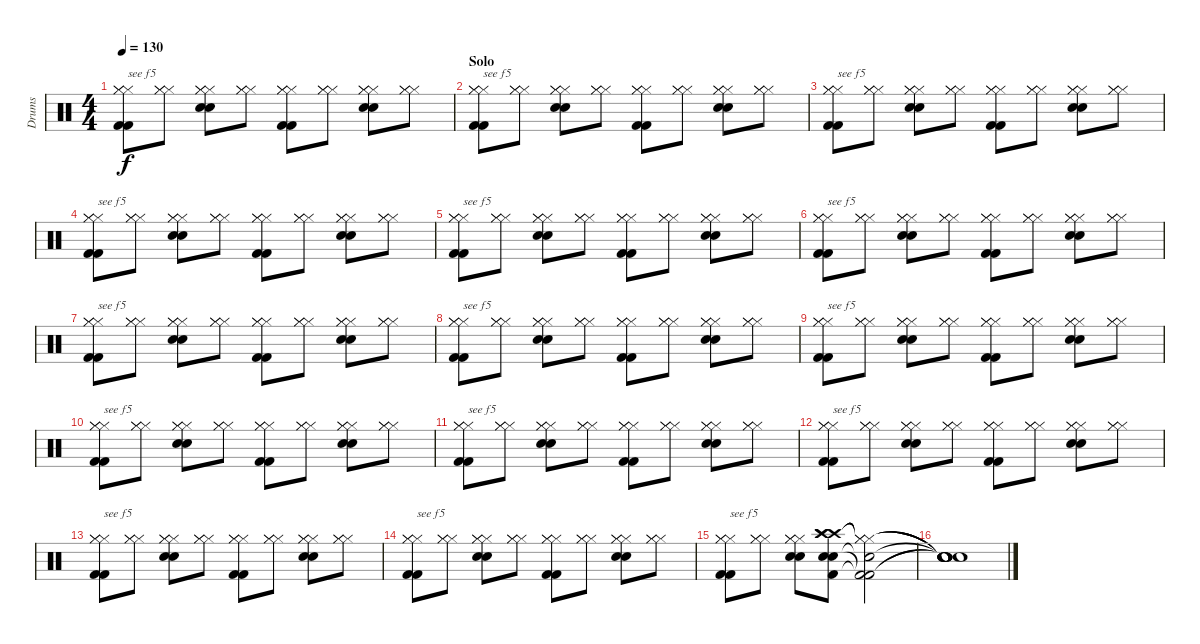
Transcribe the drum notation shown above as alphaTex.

\track ("Drums" "Drums") {instrument percussion}
\staff {score}
\articulation defaults
\ts (4 4)
\tempo 130
\clef neutral
\ks c
("Hi-Hat (closed)" "Hi-Hat (closed)" "Hi-Hat (closed)" "Kick (hit) 2" "Kick (hit) 2").8{txt "see f5" dy f} ("Hi-Hat (closed)" "Hi-Hat (closed)" "Hi-Hat (closed)").8 ("Hi-Hat (closed)" "Hi-Hat (closed)" "Hi-Hat (closed)" "Electric Snare (hit)" "Electric Snare (hit)").8 ("Hi-Hat (closed)" "Hi-Hat (closed)" "Hi-Hat (closed)").8 ("Hi-Hat (closed)" "Hi-Hat (closed)" "Hi-Hat (closed)" "Kick (hit) 2" "Kick (hit) 2").8 ("Hi-Hat (closed)" "Hi-Hat (closed)" "Hi-Hat (closed)").8 ("Hi-Hat (closed)" "Hi-Hat (closed)" "Hi-Hat (closed)" "Electric Snare (hit)" "Electric Snare (hit)").8 ("Hi-Hat (closed)" "Hi-Hat (closed)" "Hi-Hat (closed)").8 |
\section ("" "Solo")
("Hi-Hat (closed)" "Hi-Hat (closed)" "Hi-Hat (closed)" "Kick (hit) 2" "Kick (hit) 2").8{txt "see f5"} ("Hi-Hat (closed)" "Hi-Hat (closed)" "Hi-Hat (closed)").8 ("Hi-Hat (closed)" "Hi-Hat (closed)" "Hi-Hat (closed)" "Electric Snare (hit)" "Electric Snare (hit)").8 ("Hi-Hat (closed)" "Hi-Hat (closed)" "Hi-Hat (closed)").8 ("Hi-Hat (closed)" "Hi-Hat (closed)" "Hi-Hat (closed)" "Kick (hit) 2" "Kick (hit) 2").8 ("Hi-Hat (closed)" "Hi-Hat (closed)" "Hi-Hat (closed)").8 ("Hi-Hat (closed)" "Hi-Hat (closed)" "Hi-Hat (closed)" "Electric Snare (hit)" "Electric Snare (hit)").8 ("Hi-Hat (closed)" "Hi-Hat (closed)" "Hi-Hat (closed)").8 |
("Hi-Hat (closed)" "Hi-Hat (closed)" "Hi-Hat (closed)" "Kick (hit) 2" "Kick (hit) 2").8{txt "see f5"} ("Hi-Hat (closed)" "Hi-Hat (closed)" "Hi-Hat (closed)").8 ("Hi-Hat (closed)" "Hi-Hat (closed)" "Hi-Hat (closed)" "Electric Snare (hit)" "Electric Snare (hit)").8 ("Hi-Hat (closed)" "Hi-Hat (closed)" "Hi-Hat (closed)").8 ("Hi-Hat (closed)" "Hi-Hat (closed)" "Hi-Hat (closed)" "Kick (hit) 2" "Kick (hit) 2").8 ("Hi-Hat (closed)" "Hi-Hat (closed)" "Hi-Hat (closed)").8 ("Hi-Hat (closed)" "Hi-Hat (closed)" "Hi-Hat (closed)" "Electric Snare (hit)" "Electric Snare (hit)").8 ("Hi-Hat (closed)" "Hi-Hat (closed)" "Hi-Hat (closed)").8 |
("Hi-Hat (closed)" "Hi-Hat (closed)" "Hi-Hat (closed)" "Kick (hit) 2" "Kick (hit) 2").8{txt "see f5"} ("Hi-Hat (closed)" "Hi-Hat (closed)" "Hi-Hat (closed)").8 ("Hi-Hat (closed)" "Hi-Hat (closed)" "Hi-Hat (closed)" "Electric Snare (hit)" "Electric Snare (hit)").8 ("Hi-Hat (closed)" "Hi-Hat (closed)" "Hi-Hat (closed)").8 ("Hi-Hat (closed)" "Hi-Hat (closed)" "Hi-Hat (closed)" "Kick (hit) 2" "Kick (hit) 2").8 ("Hi-Hat (closed)" "Hi-Hat (closed)" "Hi-Hat (closed)").8 ("Hi-Hat (closed)" "Hi-Hat (closed)" "Hi-Hat (closed)" "Electric Snare (hit)" "Electric Snare (hit)").8 ("Hi-Hat (closed)" "Hi-Hat (closed)" "Hi-Hat (closed)").8 |
("Hi-Hat (closed)" "Hi-Hat (closed)" "Hi-Hat (closed)" "Kick (hit) 2" "Kick (hit) 2").8{txt "see f5"} ("Hi-Hat (closed)" "Hi-Hat (closed)" "Hi-Hat (closed)").8 ("Hi-Hat (closed)" "Hi-Hat (closed)" "Hi-Hat (closed)" "Electric Snare (hit)" "Electric Snare (hit)").8 ("Hi-Hat (closed)" "Hi-Hat (closed)" "Hi-Hat (closed)").8 ("Hi-Hat (closed)" "Hi-Hat (closed)" "Hi-Hat (closed)" "Kick (hit) 2" "Kick (hit) 2").8 ("Hi-Hat (closed)" "Hi-Hat (closed)" "Hi-Hat (closed)").8 ("Hi-Hat (closed)" "Hi-Hat (closed)" "Hi-Hat (closed)" "Electric Snare (hit)" "Electric Snare (hit)").8 ("Hi-Hat (closed)" "Hi-Hat (closed)" "Hi-Hat (closed)").8 |
("Hi-Hat (closed)" "Hi-Hat (closed)" "Hi-Hat (closed)" "Kick (hit) 2" "Kick (hit) 2").8{txt "see f5"} ("Hi-Hat (closed)" "Hi-Hat (closed)" "Hi-Hat (closed)").8 ("Hi-Hat (closed)" "Hi-Hat (closed)" "Hi-Hat (closed)" "Electric Snare (hit)" "Electric Snare (hit)").8 ("Hi-Hat (closed)" "Hi-Hat (closed)" "Hi-Hat (closed)").8 ("Hi-Hat (closed)" "Hi-Hat (closed)" "Hi-Hat (closed)" "Kick (hit) 2" "Kick (hit) 2").8 ("Hi-Hat (closed)" "Hi-Hat (closed)" "Hi-Hat (closed)").8 ("Hi-Hat (closed)" "Hi-Hat (closed)" "Hi-Hat (closed)" "Electric Snare (hit)" "Electric Snare (hit)").8 ("Hi-Hat (closed)" "Hi-Hat (closed)" "Hi-Hat (closed)").8 |
("Hi-Hat (closed)" "Hi-Hat (closed)" "Hi-Hat (closed)" "Kick (hit) 2" "Kick (hit) 2").8{txt "see f5"} ("Hi-Hat (closed)" "Hi-Hat (closed)" "Hi-Hat (closed)").8 ("Hi-Hat (closed)" "Hi-Hat (closed)" "Hi-Hat (closed)" "Electric Snare (hit)" "Electric Snare (hit)").8 ("Hi-Hat (closed)" "Hi-Hat (closed)" "Hi-Hat (closed)").8 ("Hi-Hat (closed)" "Hi-Hat (closed)" "Hi-Hat (closed)" "Kick (hit) 2" "Kick (hit) 2").8 ("Hi-Hat (closed)" "Hi-Hat (closed)" "Hi-Hat (closed)").8 ("Hi-Hat (closed)" "Hi-Hat (closed)" "Hi-Hat (closed)" "Electric Snare (hit)" "Electric Snare (hit)").8 ("Hi-Hat (closed)" "Hi-Hat (closed)" "Hi-Hat (closed)").8 |
("Hi-Hat (closed)" "Hi-Hat (closed)" "Hi-Hat (closed)" "Kick (hit) 2" "Kick (hit) 2").8{txt "see f5"} ("Hi-Hat (closed)" "Hi-Hat (closed)" "Hi-Hat (closed)").8 ("Hi-Hat (closed)" "Hi-Hat (closed)" "Hi-Hat (closed)" "Electric Snare (hit)" "Electric Snare (hit)").8 ("Hi-Hat (closed)" "Hi-Hat (closed)" "Hi-Hat (closed)").8 ("Hi-Hat (closed)" "Hi-Hat (closed)" "Hi-Hat (closed)" "Kick (hit) 2" "Kick (hit) 2").8 ("Hi-Hat (closed)" "Hi-Hat (closed)" "Hi-Hat (closed)").8 ("Hi-Hat (closed)" "Hi-Hat (closed)" "Hi-Hat (closed)" "Electric Snare (hit)" "Electric Snare (hit)").8 ("Hi-Hat (closed)" "Hi-Hat (closed)" "Hi-Hat (closed)").8 |
("Hi-Hat (closed)" "Hi-Hat (closed)" "Hi-Hat (closed)" "Kick (hit) 2" "Kick (hit) 2").8{txt "see f5"} ("Hi-Hat (closed)" "Hi-Hat (closed)" "Hi-Hat (closed)").8 ("Hi-Hat (closed)" "Hi-Hat (closed)" "Hi-Hat (closed)" "Electric Snare (hit)" "Electric Snare (hit)").8 ("Hi-Hat (closed)" "Hi-Hat (closed)" "Hi-Hat (closed)").8 ("Hi-Hat (closed)" "Hi-Hat (closed)" "Hi-Hat (closed)" "Kick (hit) 2" "Kick (hit) 2").8 ("Hi-Hat (closed)" "Hi-Hat (closed)" "Hi-Hat (closed)").8 ("Hi-Hat (closed)" "Hi-Hat (closed)" "Hi-Hat (closed)" "Electric Snare (hit)" "Electric Snare (hit)").8 ("Hi-Hat (closed)" "Hi-Hat (closed)" "Hi-Hat (closed)").8 |
("Hi-Hat (closed)" "Hi-Hat (closed)" "Hi-Hat (closed)" "Kick (hit) 2" "Kick (hit) 2").8{txt "see f5"} ("Hi-Hat (closed)" "Hi-Hat (closed)" "Hi-Hat (closed)").8 ("Hi-Hat (closed)" "Hi-Hat (closed)" "Hi-Hat (closed)" "Electric Snare (hit)" "Electric Snare (hit)").8 ("Hi-Hat (closed)" "Hi-Hat (closed)" "Hi-Hat (closed)").8 ("Hi-Hat (closed)" "Hi-Hat (closed)" "Hi-Hat (closed)" "Kick (hit) 2" "Kick (hit) 2").8 ("Hi-Hat (closed)" "Hi-Hat (closed)" "Hi-Hat (closed)").8 ("Hi-Hat (closed)" "Hi-Hat (closed)" "Hi-Hat (closed)" "Electric Snare (hit)" "Electric Snare (hit)").8 ("Hi-Hat (closed)" "Hi-Hat (closed)" "Hi-Hat (closed)").8 |
("Hi-Hat (closed)" "Hi-Hat (closed)" "Hi-Hat (closed)" "Kick (hit) 2" "Kick (hit) 2").8{txt "see f5"} ("Hi-Hat (closed)" "Hi-Hat (closed)" "Hi-Hat (closed)").8 ("Hi-Hat (closed)" "Hi-Hat (closed)" "Hi-Hat (closed)" "Electric Snare (hit)" "Electric Snare (hit)").8 ("Hi-Hat (closed)" "Hi-Hat (closed)" "Hi-Hat (closed)").8 ("Hi-Hat (closed)" "Hi-Hat (closed)" "Hi-Hat (closed)" "Kick (hit) 2" "Kick (hit) 2").8 ("Hi-Hat (closed)" "Hi-Hat (closed)" "Hi-Hat (closed)").8 ("Hi-Hat (closed)" "Hi-Hat (closed)" "Hi-Hat (closed)" "Electric Snare (hit)" "Electric Snare (hit)").8 ("Hi-Hat (closed)" "Hi-Hat (closed)" "Hi-Hat (closed)").8 |
("Hi-Hat (closed)" "Hi-Hat (closed)" "Hi-Hat (closed)" "Kick (hit) 2" "Kick (hit) 2").8{txt "see f5"} ("Hi-Hat (closed)" "Hi-Hat (closed)" "Hi-Hat (closed)").8 ("Hi-Hat (closed)" "Hi-Hat (closed)" "Hi-Hat (closed)" "Electric Snare (hit)" "Electric Snare (hit)").8 ("Hi-Hat (closed)" "Hi-Hat (closed)" "Hi-Hat (closed)").8 ("Hi-Hat (closed)" "Hi-Hat (closed)" "Hi-Hat (closed)" "Kick (hit) 2" "Kick (hit) 2").8 ("Hi-Hat (closed)" "Hi-Hat (closed)" "Hi-Hat (closed)").8 ("Hi-Hat (closed)" "Hi-Hat (closed)" "Hi-Hat (closed)" "Electric Snare (hit)" "Electric Snare (hit)").8 ("Hi-Hat (closed)" "Hi-Hat (closed)" "Hi-Hat (closed)").8 |
("Hi-Hat (closed)" "Hi-Hat (closed)" "Hi-Hat (closed)" "Kick (hit) 2" "Kick (hit) 2").8{txt "see f5"} ("Hi-Hat (closed)" "Hi-Hat (closed)" "Hi-Hat (closed)").8 ("Hi-Hat (closed)" "Hi-Hat (closed)" "Hi-Hat (closed)" "Electric Snare (hit)" "Electric Snare (hit)").8 ("Hi-Hat (closed)" "Hi-Hat (closed)" "Hi-Hat (closed)").8 ("Hi-Hat (closed)" "Hi-Hat (closed)" "Hi-Hat (closed)" "Kick (hit) 2" "Kick (hit) 2").8 ("Hi-Hat (closed)" "Hi-Hat (closed)" "Hi-Hat (closed)").8 ("Hi-Hat (closed)" "Hi-Hat (closed)" "Hi-Hat (closed)" "Electric Snare (hit)" "Electric Snare (hit)").8 ("Hi-Hat (closed)" "Hi-Hat (closed)" "Hi-Hat (closed)").8 |
("Hi-Hat (closed)" "Hi-Hat (closed)" "Hi-Hat (closed)" "Kick (hit) 2" "Kick (hit) 2").8{txt "see f5"} ("Hi-Hat (closed)" "Hi-Hat (closed)" "Hi-Hat (closed)").8 ("Hi-Hat (closed)" "Hi-Hat (closed)" "Hi-Hat (closed)" "Electric Snare (hit)" "Electric Snare (hit)").8 ("Hi-Hat (closed)" "Hi-Hat (closed)" "Hi-Hat (closed)").8 ("Hi-Hat (closed)" "Hi-Hat (closed)" "Hi-Hat (closed)" "Kick (hit) 2" "Kick (hit) 2").8 ("Hi-Hat (closed)" "Hi-Hat (closed)" "Hi-Hat (closed)").8 ("Hi-Hat (closed)" "Hi-Hat (closed)" "Hi-Hat (closed)" "Electric Snare (hit)" "Electric Snare (hit)").8 ("Hi-Hat (closed)" "Hi-Hat (closed)" "Hi-Hat (closed)").8 |
("Hi-Hat (closed)" "Hi-Hat (closed)" "Hi-Hat (closed)" "Kick (hit) 2" "Kick (hit) 2").8{txt "see f5"} ("Hi-Hat (closed)" "Hi-Hat (closed)" "Hi-Hat (closed)").8 ("Hi-Hat (closed)" "Hi-Hat (closed)" "Hi-Hat (closed)" "Electric Snare (hit)" "Electric Snare (hit)").8 ("Crash high (hit)" "Crash high (hit)" "Crash high (hit)" "Electric Snare (hit)" "Electric Snare (hit)" "Kick (hit) 2").8 ("Hi-Hat (closed)"{t} "Hi-Hat (closed)"{t} "Hi-Hat (closed)"{t} "Snare (hit)"{t} "Kick (hit) 2"{t} "Kick (hit) 2"{t}).2 |
("Snare (hit)"{t} "Snare (hit)"{t} "Snare (hit)"{t} "Snare (hit)"{t} "Snare (hit)"{t} "Snare (hit)"{t}).1
